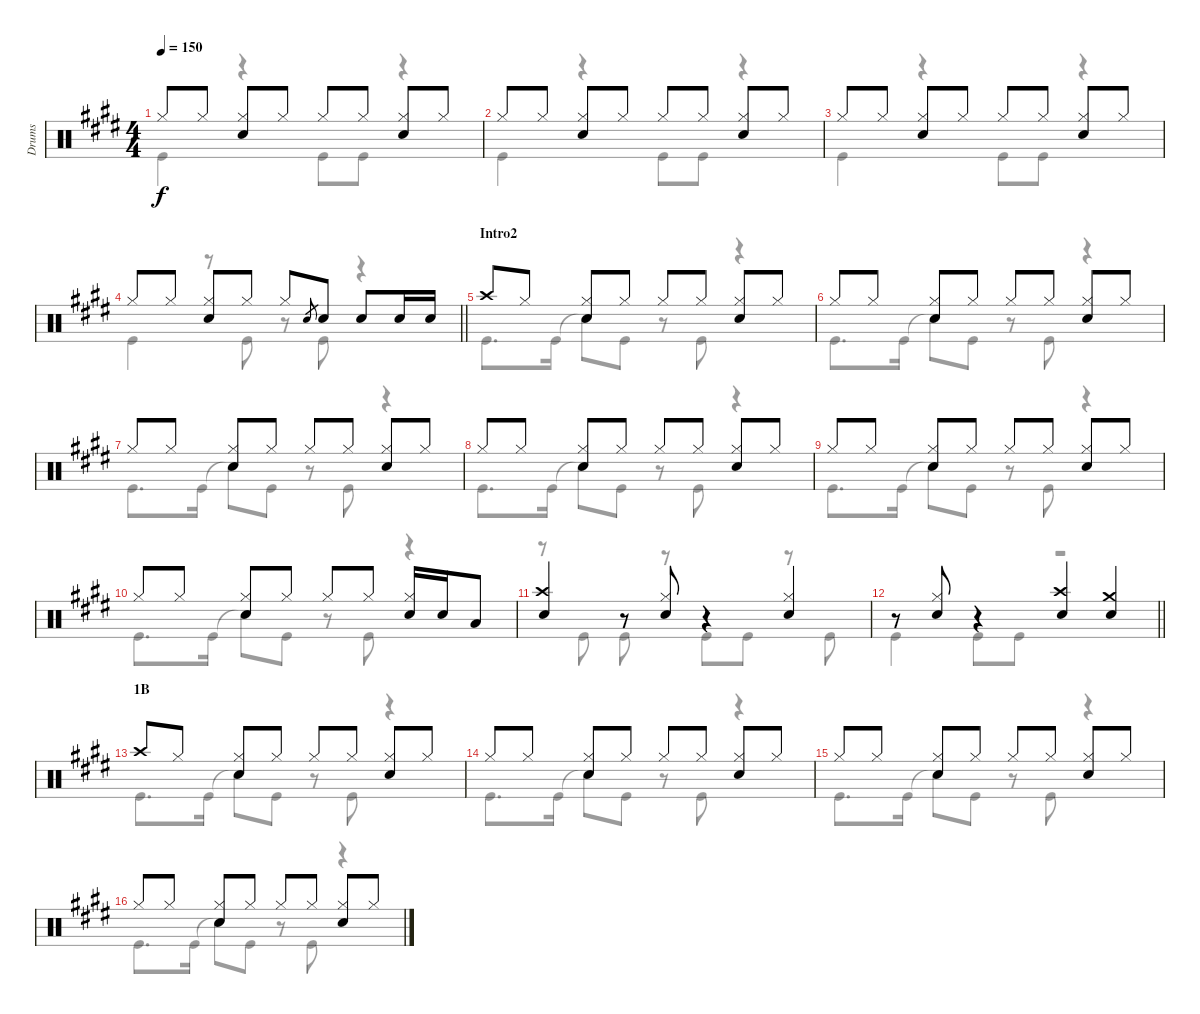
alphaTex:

\track ("Drums" "Drums") {instrument percussion}
\staff {score}
\articulation defaults
\voice
\ts (4 4)
\tempo 150
\clef neutral
\ks e "Hi-Hat (closed)".8{dy f} "Hi-Hat (closed)".8
("Hi-Hat (closed)" "Snare (hit) 2").8 "Hi-Hat (closed)".8 "Hi-Hat (closed)".8 "Hi-Hat (closed)".8 ("Hi-Hat (closed)" "Snare (hit) 2").8 "Hi-Hat (closed)".8 |
"Hi-Hat (closed)".8 "Hi-Hat (closed)".8 ("Hi-Hat (closed)" "Snare (hit) 2").8 "Hi-Hat (closed)".8 "Hi-Hat (closed)".8 "Hi-Hat (closed)".8 ("Hi-Hat (closed)" "Snare (hit) 2").8 "Hi-Hat (closed)".8 |
"Hi-Hat (closed)".8 "Hi-Hat (closed)".8 ("Hi-Hat (closed)" "Snare (hit) 2").8 "Hi-Hat (closed)".8 "Hi-Hat (closed)".8 "Hi-Hat (closed)".8 ("Hi-Hat (closed)" "Snare (hit) 2").8 "Hi-Hat (closed)".8 |
\barLineRight lightlight "Hi-Hat (closed)".8 "Hi-Hat (closed)".8
("Hi-Hat (closed)" "Snare (hit) 2").8 "Hi-Hat (closed)".8 "Hi-Hat (closed)".8 "Snare (hit) 2".8{gr} "Snare (hit) 2".8 "Snare (hit) 2".8 "Snare (hit) 2".16 "Snare (hit) 2".16 |
\section ("" "Intro2")
"Crash high (hit)".8 "Hi-Hat (closed)".8 ("Hi-Hat (closed)" "Snare (hit) 2").8 "Hi-Hat (closed)".8 "Hi-Hat (closed)".8 "Hi-Hat (closed)".8 ("Hi-Hat (closed)" "Snare (hit) 2").8 "Hi-Hat (closed)".8 |
"Hi-Hat (closed)".8 "Hi-Hat (closed)".8 ("Hi-Hat (closed)" "Snare (hit) 2").8 "Hi-Hat (closed)".8 "Hi-Hat (closed)".8 "Hi-Hat (closed)".8 ("Hi-Hat (closed)" "Snare (hit) 2").8 "Hi-Hat (closed)".8 |
"Hi-Hat (closed)".8 "Hi-Hat (closed)".8 ("Hi-Hat (closed)" "Snare (hit) 2").8 "Hi-Hat (closed)".8 "Hi-Hat (closed)".8 "Hi-Hat (closed)".8 ("Hi-Hat (closed)" "Snare (hit) 2").8 "Hi-Hat (closed)".8 |
"Hi-Hat (closed)".8 "Hi-Hat (closed)".8 ("Hi-Hat (closed)" "Snare (hit) 2").8 "Hi-Hat (closed)".8 "Hi-Hat (closed)".8 "Hi-Hat (closed)".8 ("Hi-Hat (closed)" "Snare (hit) 2").8 "Hi-Hat (closed)".8 |
"Hi-Hat (closed)".8 "Hi-Hat (closed)".8 ("Hi-Hat (closed)" "Snare (hit) 2").8 "Hi-Hat (closed)".8 "Hi-Hat (closed)".8 "Hi-Hat (closed)".8 ("Hi-Hat (closed)" "Snare (hit) 2").8 "Hi-Hat (closed)".8 |
"Hi-Hat (closed)".8 "Hi-Hat (closed)".8 ("Hi-Hat (closed)" "Snare (hit) 2").8 "Hi-Hat (closed)".8 "Hi-Hat (closed)".8 "Hi-Hat (closed)".8 ("Hi-Hat (closed)" "Snare (hit) 2").16 "Snare (hit) 2".16 "Low Tom (hit)".8 |
("Crash high (hit)" "Snare (hit) 2").4 r.8 ("Hi-Hat (closed)" "Snare (hit) 2").8 r.4 ("Hi-Hat (closed)" "Snare (hit) 2").4 |
\barLineRight lightlight
r.8 ("Hi-Hat (closed)" "Snare (hit) 2").8 r.4 ("Crash high (hit)" "Snare (hit) 2").4 ("Crash medium (hit)" "Snare (hit) 2").4 |
\section ("" "1B")
"Crash high (hit)".8 "Hi-Hat (closed)".8 ("Hi-Hat (closed)" "Snare (hit) 2").8 "Hi-Hat (closed)".8 "Hi-Hat (closed)".8 "Hi-Hat (closed)".8 ("Hi-Hat (closed)" "Snare (hit) 2").8 "Hi-Hat (closed)".8 |
"Hi-Hat (closed)".8 "Hi-Hat (closed)".8 ("Hi-Hat (closed)" "Snare (hit) 2").8 "Hi-Hat (closed)".8 "Hi-Hat (closed)".8 "Hi-Hat (closed)".8 ("Hi-Hat (closed)" "Snare (hit) 2").8 "Hi-Hat (closed)".8 |
"Hi-Hat (closed)".8 "Hi-Hat (closed)".8 ("Hi-Hat (closed)" "Snare (hit) 2").8 "Hi-Hat (closed)".8 "Hi-Hat (closed)".8 "Hi-Hat (closed)".8 ("Hi-Hat (closed)" "Snare (hit) 2").8 "Hi-Hat (closed)".8 |
"Hi-Hat (closed)".8 "Hi-Hat (closed)".8 ("Hi-Hat (closed)" "Snare (hit) 2").8 "Hi-Hat (closed)".8 "Hi-Hat (closed)".8 "Hi-Hat (closed)".8 ("Hi-Hat (closed)" "Snare (hit) 2").8 "Hi-Hat (closed)".8
\voice
\clef neutral
\ottava regular
\simile none
\ks e "Kick (hit)".4{dy f}
r.4 "Kick (hit)".8 "Kick (hit)".8 r.4 |
"Kick (hit)".4 r.4 "Kick (hit)".8 "Kick (hit)".8 r.4 |
"Kick (hit)".4 r.4 "Kick (hit)".8 "Kick (hit)".8 r.4 |
\barLineRight lightlight "Kick (hit)".4
r.8 "Kick (hit)".8 r.8 "Kick (hit)".8 r.4 |
"Kick (hit)".8{d} "Kick (hit)".16 "Snare (hit)"{t}.8 "Kick (hit)".8 r.8 "Kick (hit)".8 r.4 |
"Kick (hit)".8{d} "Kick (hit)".16 "Snare (hit)"{t}.8 "Kick (hit)".8 r.8 "Kick (hit)".8 r.4 |
"Kick (hit)".8{d} "Kick (hit)".16 "Snare (hit)"{t}.8 "Kick (hit)".8 r.8 "Kick (hit)".8 r.4 |
"Kick (hit)".8{d} "Kick (hit)".16 "Snare (hit)"{t}.8 "Kick (hit)".8 r.8 "Kick (hit)".8 r.4 |
"Kick (hit)".8{d} "Kick (hit)".16 "Snare (hit)"{t}.8 "Kick (hit)".8 r.8 "Kick (hit)".8 r.4 |
"Kick (hit)".8{d} "Kick (hit)".16 "Snare (hit)"{t}.8 "Kick (hit)".8 r.8 "Kick (hit)".8 r.4 |
r.8 "Kick (hit)".8 "Kick (hit)".8 r.8 "Kick (hit)".8 "Kick (hit)".8 r.8 "Kick (hit)".8 |
\barLineRight lightlight "Kick (hit)".4 "Kick (hit)".8 "Kick (hit)".8
r.2 |
"Kick (hit)".8{d} "Kick (hit)".16 "Snare (hit)"{t}.8 "Kick (hit)".8 r.8 "Kick (hit)".8 r.4 |
"Kick (hit)".8{d} "Kick (hit)".16 "Snare (hit)"{t}.8 "Kick (hit)".8 r.8 "Kick (hit)".8 r.4 |
"Kick (hit)".8{d} "Kick (hit)".16 "Snare (hit)"{t}.8 "Kick (hit)".8 r.8 "Kick (hit)".8 r.4 |
"Kick (hit)".8{d} "Kick (hit)".16 "Snare (hit)"{t}.8 "Kick (hit)".8 r.8 "Kick (hit)".8 r.4
